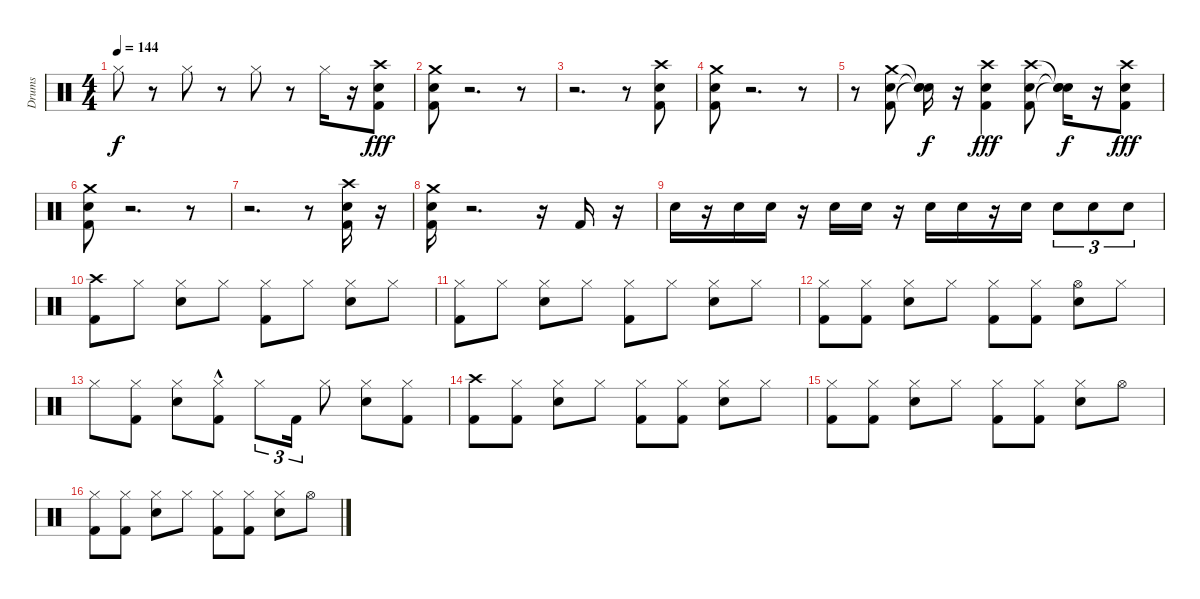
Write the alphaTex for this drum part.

\track ("Drums" "Drums") {instrument percussion}
\staff {score}
\articulation defaults
\ts (4 4)
\tempo 144
\clef neutral
\ks c "Hi-Hat (closed)".8{dy f}
r.8 "Hi-Hat (closed)".8 r.8 "Hi-Hat (closed)".8 r.8 "Hi-Hat (closed)".16 r.16 ("Crash high (hit)" "Snare (hit) 2" "Kick (hit) 2").8{dy fff} |
("Kick (hit) 2" "Snare (hit) 2" "Crash medium (hit)").8 r.2{d} r.8 |
r.2{d} r.8 ("Kick (hit) 2" "Snare (hit) 2" "Crash high (hit)").8 |
("Kick (hit) 2" "Snare (hit) 2" "Crash medium (hit)").8 r.2{d} r.8 |
r.8 ("Kick (hit) 2" "Snare (hit) 2" "Crash medium (hit)").8 ("Snare (hit)"{t} "Snare (hit)"{t} "Snare (hit)"{t}).16{dy f} r.16 ("Kick (hit) 2" "Snare (hit) 2" "Crash high (hit)").4{dy fff} ("Kick (hit) 2" "Snare (hit) 2" "Crash high (hit)").8 ("Snare (hit)"{t} "Snare (hit)"{t} "Snare (hit)"{t}).16{dy f} r.16 ("Kick (hit) 2" "Snare (hit) 2" "Crash high (hit)").8{dy fff} |
("Kick (hit) 2" "Snare (hit) 2" "Crash medium (hit)").8 r.2{d} r.8 |
r.2{d} r.8 ("Kick (hit) 2" "Snare (hit) 2" "Crash high (hit)").16 r.16 |
("Kick (hit) 2" "Snare (hit) 2" "Crash medium (hit)").16 r.2{d} r.16 "Kick (hit) 2".16 r.16 |
"Snare (hit) 2".16 r.16 "Snare (hit) 2".16 "Snare (hit) 2".16 r.16 "Snare (hit) 2".16 "Snare (hit) 2".16 r.16 "Snare (hit) 2".16 "Snare (hit) 2".16 r.16 "Snare (hit) 2".16 "Snare (hit) 2".8{tu (3 2)} "Snare (hit) 2".8{tu (3 2)} "Snare (hit) 2".8{tu (3 2)} |
("Kick (hit) 2" "Crash high (hit)").8 "Hi-Hat (closed)".8 ("Snare (hit) 2" "Hi-Hat (closed)").8 "Hi-Hat (closed)".8 ("Kick (hit) 2" "Hi-Hat (closed)").8 "Hi-Hat (closed)".8 ("Snare (hit) 2" "Hi-Hat (closed)").8 "Hi-Hat (closed)".8 |
("Kick (hit) 2" "Hi-Hat (closed)").8 "Hi-Hat (closed)".8 ("Snare (hit) 2" "Hi-Hat (closed)").8 "Hi-Hat (closed)".8 ("Kick (hit) 2" "Hi-Hat (closed)").8 "Hi-Hat (closed)".8 ("Snare (hit) 2" "Hi-Hat (closed)").8 "Hi-Hat (closed)".8 |
("Kick (hit) 2" "Hi-Hat (closed)").8 ("Kick (hit) 2" "Hi-Hat (closed)").8 ("Snare (hit) 2" "Hi-Hat (closed)").8 "Hi-Hat (closed)".8 ("Kick (hit) 2" "Hi-Hat (closed)").8 ("Kick (hit) 2" "Hi-Hat (closed)").8 ("Snare (hit) 2" "Hi-Hat (open)").8 "Hi-Hat (closed)".8 |
"Hi-Hat (closed)".8 ("Kick (hit) 2" "Hi-Hat (closed)").8 ("Snare (hit) 2" "Hi-Hat (closed)").8 ("Hi-Hat (closed)" "Kick (hit) 2"{hac}).8 "Hi-Hat (closed)".8{tu (3 2)} "Kick (hit) 2".16{tu (3 2)} "Hi-Hat (closed)".8 ("Snare (hit) 2" "Hi-Hat (closed)").8 ("Hi-Hat (closed)" "Kick (hit) 2").8 |
("Kick (hit) 2" "Crash high (hit)").8 ("Kick (hit) 2" "Hi-Hat (closed)").8 ("Snare (hit) 2" "Hi-Hat (closed)").8 "Hi-Hat (closed)".8 ("Kick (hit) 2" "Hi-Hat (closed)").8 ("Kick (hit) 2" "Hi-Hat (closed)").8 ("Snare (hit) 2" "Hi-Hat (closed)").8 "Hi-Hat (closed)".8 |
("Kick (hit) 2" "Hi-Hat (closed)").8 ("Kick (hit) 2" "Hi-Hat (closed)").8 ("Snare (hit) 2" "Hi-Hat (closed)").8 "Hi-Hat (closed)".8 ("Kick (hit) 2" "Hi-Hat (closed)").8 ("Kick (hit) 2" "Hi-Hat (closed)").8 ("Snare (hit) 2" "Hi-Hat (closed)").8 "Hi-Hat (open)".8 |
("Hi-Hat (closed)" "Kick (hit) 2").8 ("Kick (hit) 2" "Hi-Hat (closed)").8 ("Snare (hit) 2" "Hi-Hat (closed)").8 "Hi-Hat (closed)".8 ("Kick (hit) 2" "Hi-Hat (closed)").8 ("Kick (hit) 2" "Hi-Hat (closed)").8 ("Snare (hit) 2" "Hi-Hat (closed)").8 "Hi-Hat (open)".8
